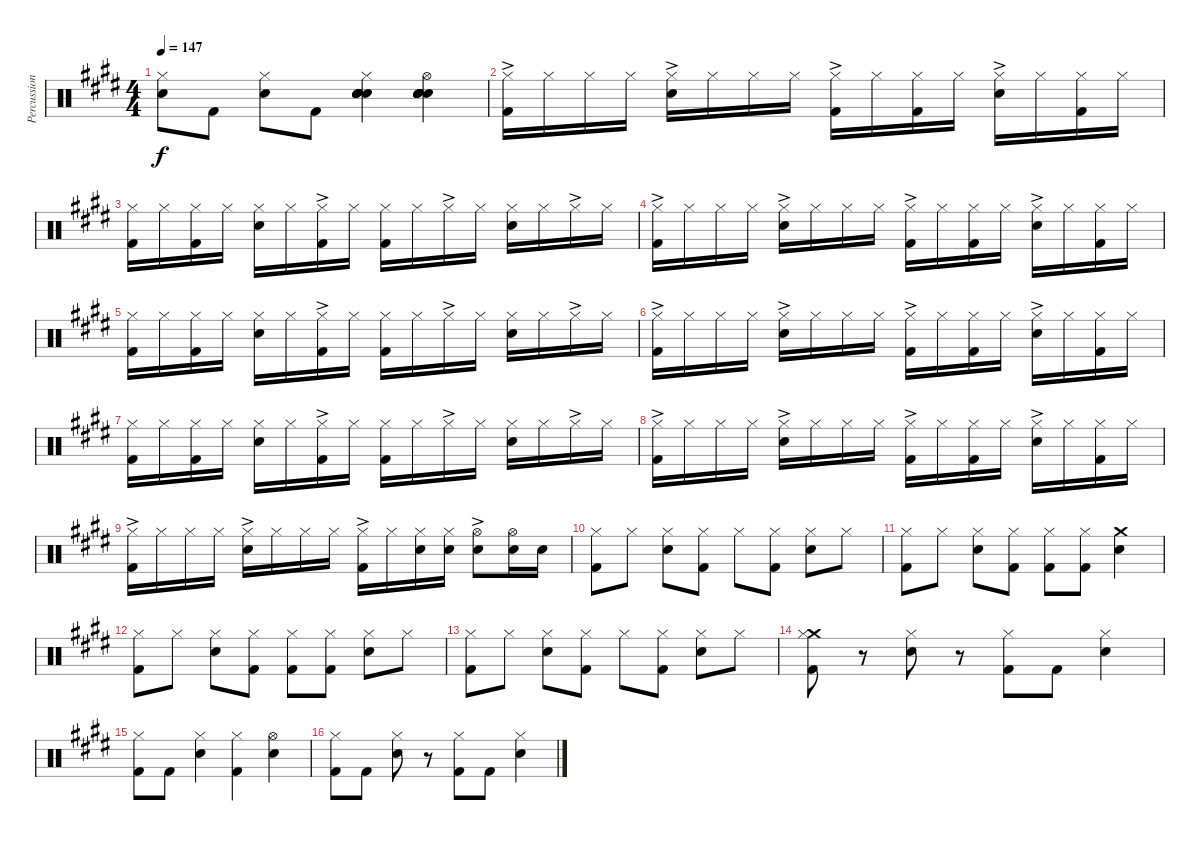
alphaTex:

\track ("Percussion" "Percussion") {instrument percussion}
\staff {score}
\articulation defaults
\ts (4 4)
\tempo 147
\clef neutral
\ks e
("Hi-Hat (closed)" "Electric Snare (hit)").8{dy f} "Kick (hit) 2".8 ("Hi-Hat (closed)" "Electric Snare (hit)").8 "Kick (hit) 2".8 ("Hand Clap (hit)" "Hand Clap (hit)" "Hi-Hat (closed)" "Hand Clap (hit)" "Electric Snare (hit)" "Hand Clap (hit)").4{bd 60} ("Hand Clap (hit)" "Hand Clap (hit)" "Hi-Hat (open)" "Hand Clap (hit)" "Electric Snare (hit)" "Hand Clap (hit)").4{bd 60} |
("Hi-Hat (closed)"{ac} "Kick (hit) 2").16 "Hi-Hat (closed)".16 "Hi-Hat (closed)".16 "Hi-Hat (closed)".16 ("Hi-Hat (closed)"{ac} "Electric Snare (hit)").16 "Hi-Hat (closed)".16 "Hi-Hat (closed)".16 "Hi-Hat (closed)".16 ("Hi-Hat (closed)"{ac} "Kick (hit) 2").16 "Hi-Hat (closed)".16 ("Hi-Hat (closed)" "Kick (hit) 2").16 "Hi-Hat (closed)".16 ("Hi-Hat (closed)"{ac} "Electric Snare (hit)").16 "Hi-Hat (closed)".16 ("Hi-Hat (closed)" "Kick (hit) 2").16 "Hi-Hat (closed)".16 |
("Hi-Hat (closed)" "Kick (hit) 2").16 "Hi-Hat (closed)".16 ("Hi-Hat (closed)" "Kick (hit) 2").16 "Hi-Hat (closed)".16 ("Hi-Hat (closed)" "Electric Snare (hit)").16 "Hi-Hat (closed)".16 ("Hi-Hat (closed)"{ac} "Kick (hit) 2").16 "Hi-Hat (closed)".16 ("Hi-Hat (closed)" "Kick (hit) 2").16 "Hi-Hat (closed)".16 "Hi-Hat (closed)"{ac}.16 "Hi-Hat (closed)".16 ("Hi-Hat (closed)" "Electric Snare (hit)").16 "Hi-Hat (closed)".16 "Hi-Hat (closed)"{ac}.16 "Hi-Hat (closed)".16 |
("Hi-Hat (closed)"{ac} "Kick (hit) 2").16 "Hi-Hat (closed)".16 "Hi-Hat (closed)".16 "Hi-Hat (closed)".16 ("Hi-Hat (closed)"{ac} "Electric Snare (hit)").16 "Hi-Hat (closed)".16 "Hi-Hat (closed)".16 "Hi-Hat (closed)".16 ("Hi-Hat (closed)"{ac} "Kick (hit) 2").16 "Hi-Hat (closed)".16 ("Hi-Hat (closed)" "Kick (hit) 2").16 "Hi-Hat (closed)".16 ("Hi-Hat (closed)"{ac} "Electric Snare (hit)").16 "Hi-Hat (closed)".16 ("Hi-Hat (closed)" "Kick (hit) 2").16 "Hi-Hat (closed)".16 |
("Hi-Hat (closed)" "Kick (hit) 2").16 "Hi-Hat (closed)".16 ("Hi-Hat (closed)" "Kick (hit) 2").16 "Hi-Hat (closed)".16 ("Hi-Hat (closed)" "Electric Snare (hit)").16 "Hi-Hat (closed)".16 ("Hi-Hat (closed)"{ac} "Kick (hit) 2").16 "Hi-Hat (closed)".16 ("Hi-Hat (closed)" "Kick (hit) 2").16 "Hi-Hat (closed)".16 "Hi-Hat (closed)"{ac}.16 "Hi-Hat (closed)".16 ("Hi-Hat (closed)" "Electric Snare (hit)").16 "Hi-Hat (closed)".16 "Hi-Hat (closed)"{ac}.16 "Hi-Hat (closed)".16 |
("Hi-Hat (closed)"{ac} "Kick (hit) 2").16 "Hi-Hat (closed)".16 "Hi-Hat (closed)".16 "Hi-Hat (closed)".16 ("Hi-Hat (closed)"{ac} "Electric Snare (hit)").16 "Hi-Hat (closed)".16 "Hi-Hat (closed)".16 "Hi-Hat (closed)".16 ("Hi-Hat (closed)"{ac} "Kick (hit) 2").16 "Hi-Hat (closed)".16 ("Hi-Hat (closed)" "Kick (hit) 2").16 "Hi-Hat (closed)".16 ("Hi-Hat (closed)"{ac} "Electric Snare (hit)").16 "Hi-Hat (closed)".16 ("Hi-Hat (closed)" "Kick (hit) 2").16 "Hi-Hat (closed)".16 |
("Hi-Hat (closed)" "Kick (hit) 2").16 "Hi-Hat (closed)".16 ("Hi-Hat (closed)" "Kick (hit) 2").16 "Hi-Hat (closed)".16 ("Hi-Hat (closed)" "Electric Snare (hit)").16 "Hi-Hat (closed)".16 ("Hi-Hat (closed)"{ac} "Kick (hit) 2").16 "Hi-Hat (closed)".16 ("Hi-Hat (closed)" "Kick (hit) 2").16 "Hi-Hat (closed)".16 "Hi-Hat (closed)"{ac}.16 "Hi-Hat (closed)".16 ("Hi-Hat (closed)" "Electric Snare (hit)").16 "Hi-Hat (closed)".16 "Hi-Hat (closed)"{ac}.16 "Hi-Hat (closed)".16 |
("Hi-Hat (closed)"{ac} "Kick (hit) 2").16 "Hi-Hat (closed)".16 "Hi-Hat (closed)".16 "Hi-Hat (closed)".16 ("Hi-Hat (closed)"{ac} "Electric Snare (hit)").16 "Hi-Hat (closed)".16 "Hi-Hat (closed)".16 "Hi-Hat (closed)".16 ("Hi-Hat (closed)"{ac} "Kick (hit) 2").16 "Hi-Hat (closed)".16 ("Hi-Hat (closed)" "Kick (hit) 2").16 "Hi-Hat (closed)".16 ("Hi-Hat (closed)"{ac} "Electric Snare (hit)").16 "Hi-Hat (closed)".16 ("Hi-Hat (closed)" "Kick (hit) 2").16 "Hi-Hat (closed)".16 |
("Hi-Hat (closed)"{ac} "Kick (hit) 2").16 "Hi-Hat (closed)".16 "Hi-Hat (closed)".16 "Hi-Hat (closed)".16 ("Hi-Hat (closed)"{ac} "Electric Snare (hit)").16 "Hi-Hat (closed)".16 "Hi-Hat (closed)".16 "Hi-Hat (closed)".16 ("Hi-Hat (closed)"{ac} "Kick (hit) 2").16 "Hi-Hat (closed)".16 ("Hi-Hat (closed)" "Electric Snare (hit)").16 ("Hi-Hat (closed)" "Electric Snare (hit)").16 ("Hi-Hat (open)"{ac} "Electric Snare (hit)").8 ("Hi-Hat (open)" "Electric Snare (hit)").16 "Electric Snare (hit)".16 |
("Hi-Hat (closed)" "Kick (hit) 2").8 "Hi-Hat (closed)".8 ("Hi-Hat (closed)" "Electric Snare (hit)").8 ("Hi-Hat (closed)" "Kick (hit) 2").8 "Hi-Hat (closed)".8 ("Hi-Hat (closed)" "Kick (hit) 2").8 ("Hi-Hat (closed)" "Electric Snare (hit)").8 "Hi-Hat (closed)".8 |
("Hi-Hat (closed)" "Kick (hit) 2").8 "Hi-Hat (closed)".8 ("Hi-Hat (closed)" "Electric Snare (hit)").8 ("Hi-Hat (closed)" "Kick (hit) 2").8 ("Hi-Hat (closed)" "Kick (hit) 2").8 ("Hi-Hat (closed)" "Kick (hit) 2").8 ("Crash medium (hit)" "Electric Snare (hit)").4 |
("Hi-Hat (closed)" "Kick (hit) 2").8 "Hi-Hat (closed)".8 ("Hi-Hat (closed)" "Electric Snare (hit)").8 ("Hi-Hat (closed)" "Kick (hit) 2").8 ("Hi-Hat (closed)" "Kick (hit) 2").8 ("Hi-Hat (closed)" "Kick (hit) 2").8 ("Hi-Hat (closed)" "Electric Snare (hit)").8 "Hi-Hat (closed)".8 |
("Hi-Hat (closed)" "Kick (hit) 2").8 "Hi-Hat (closed)".8 ("Hi-Hat (closed)" "Electric Snare (hit)").8 ("Hi-Hat (closed)" "Kick (hit) 2").8 "Hi-Hat (closed)".8 ("Hi-Hat (closed)" "Kick (hit) 2").8 ("Hi-Hat (closed)" "Electric Snare (hit)").8 "Hi-Hat (closed)".8 |
("Crash medium (hit)" "Hi-Hat (closed)" "Kick (hit) 2").8 r.8 ("Hi-Hat (closed)" "Electric Snare (hit)").8 r.8 ("Hi-Hat (closed)" "Kick (hit) 2").8 "Kick (hit) 2".8 ("Hi-Hat (closed)" "Electric Snare (hit)").4 |
("Hi-Hat (closed)" "Kick (hit) 2").8 "Kick (hit) 2".8 ("Hi-Hat (closed)" "Electric Snare (hit)").4 ("Hi-Hat (closed)" "Kick (hit) 2").4 ("Hi-Hat (open)" "Electric Snare (hit)").4 |
("Hi-Hat (closed)" "Kick (hit) 2").8 "Kick (hit) 2".8 ("Hi-Hat (closed)" "Electric Snare (hit)").8 r.8 ("Hi-Hat (closed)" "Kick (hit) 2").8 "Kick (hit) 2".8 ("Hi-Hat (closed)" "Electric Snare (hit)").4
